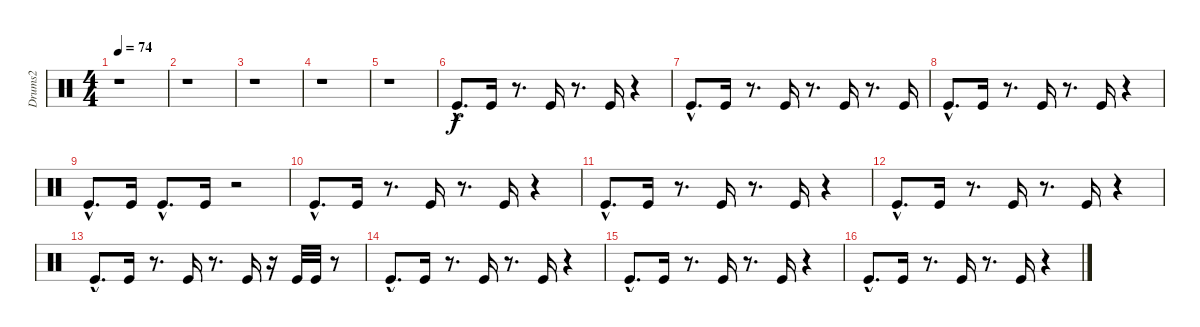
\track ("Drums2" "Drums2") {instrument percussion}
\staff {score}
\articulation defaults
\ts (4 4)
\tempo 74
\clef neutral
\ks c
r.1{dy f} |
r.1 |
r.1 |
r.1 |
r.1 |
"Kick (hit)"{hac}.8{d} "Kick (hit)".16 r.8{d} "Kick (hit)".16 r.8{d} "Kick (hit)".16 r.4 |
"Kick (hit)"{hac}.8{d} "Kick (hit)".16 r.8{d} "Kick (hit)".16 r.8{d} "Kick (hit)".16 r.8{d} "Kick (hit)".16 |
"Kick (hit)"{hac}.8{d} "Kick (hit)".16 r.8{d} "Kick (hit)".16 r.8{d} "Kick (hit)".16 r.4 |
"Kick (hit)"{hac}.8{d} "Kick (hit)".16 "Kick (hit)"{hac}.8{d} "Kick (hit)".16 r.2 |
"Kick (hit)"{hac}.8{d} "Kick (hit)".16 r.8{d} "Kick (hit)".16 r.8{d} "Kick (hit)".16 r.4 |
"Kick (hit)"{hac}.8{d} "Kick (hit)".16 r.8{d} "Kick (hit)".16 r.8{d} "Kick (hit)".16 r.4 |
"Kick (hit)"{hac}.8{d} "Kick (hit)".16 r.8{d} "Kick (hit)".16 r.8{d} "Kick (hit)".16 r.4 |
"Kick (hit)"{hac}.8{d} "Kick (hit)".16 r.8{d} "Kick (hit)".16 r.8{d} "Kick (hit)".16 r.16 "Kick (hit)".32 "Kick (hit)".32 r.8 |
"Kick (hit)"{hac}.8{d} "Kick (hit)".16 r.8{d} "Kick (hit)".16 r.8{d} "Kick (hit)".16 r.4 |
"Kick (hit)"{hac}.8{d} "Kick (hit)".16 r.8{d} "Kick (hit)".16 r.8{d} "Kick (hit)".16 r.4 |
"Kick (hit)"{hac}.8{d} "Kick (hit)".16 r.8{d} "Kick (hit)".16 r.8{d} "Kick (hit)".16 r.4
